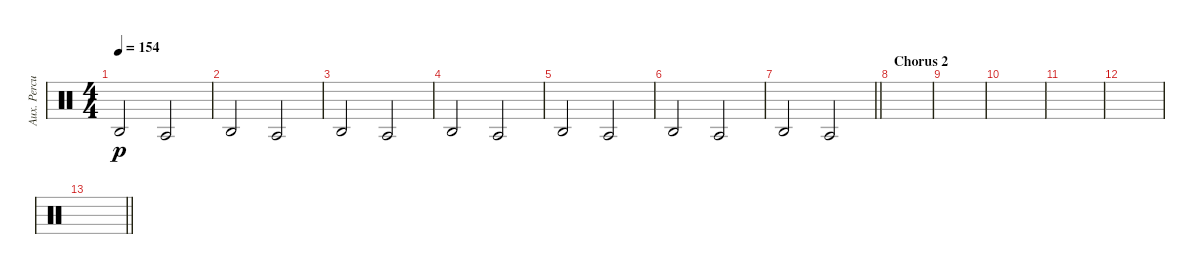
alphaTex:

\track ("Aux. Percussion" "Aux. Percu") {instrument percussion}
\staff {score}
\articulation defaults
\ts (4 4)
\tempo 154
\clef neutral
\ks c "Agogo high (hit)".2{dy p} "Agogo tow (hit)".2
|
"Agogo high (hit)".2 "Agogo tow (hit)".2 |
"Agogo high (hit)".2 "Agogo tow (hit)".2 |
"Agogo high (hit)".2 "Agogo tow (hit)".2 |
"Agogo high (hit)".2 "Agogo tow (hit)".2 |
"Agogo high (hit)".2 "Agogo tow (hit)".2 |
\barLineRight lightlight "Agogo high (hit)".2 "Agogo tow (hit)".2
|
\section ("" "Chorus 2")
|
|
|
|
|
\barLineRight lightlight
